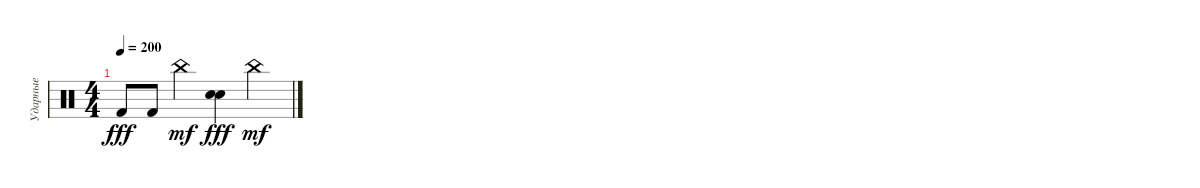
\track ("Ударные" "Ударные") {instrument percussion}
\staff {score}
\articulation defaults
\ts (4 4)
\tempo 200
\clef neutral
\ks c "Kick (hit) 2".8{dy fff} "Kick (hit) 2".8 "China (hit)".4{dy mf}
("Snare (hit) 2" "Electric Snare (hit)").4{dy fff} "China (hit)".4{dy mf}
